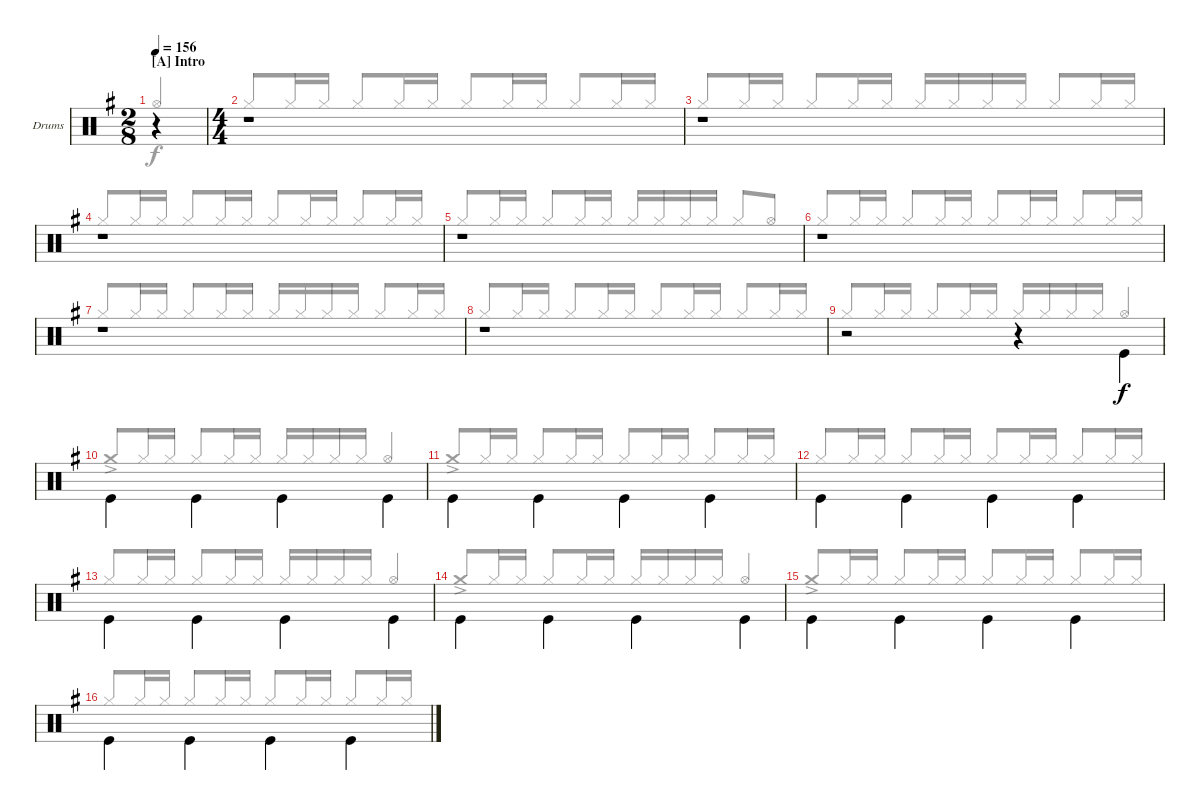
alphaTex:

\bracketExtendMode groupsimilarinstruments
\firstSystemTrackNameOrientation horizontal
\otherSystemsTrackNameOrientation horizontal
\track ("Drums" "Drums") {instrument percussion}
\staff {score}
\articulation defaults
\voice
\ts (2 8)
\section ("A" "Intro")
\tempo 156
\clef neutral
\scale
1.07314
\ks g
r.4{dy f} |
\ts (4 4)
\scale
0.92686 r.1 |
\scale
1.04288 r.1 |
\scale
0.957125 r.1 |
\scale
1.04288 r.1 |
\scale
0.957125 r.1 |
\scale
1.04288 r.1 |
\scale
0.957125 r.1 |
\scale
1.04288 r.2 r.4 "Kick (hit)".4{beam invert} |
\scale
0.957125 "Kick (hit)".4{beam invert} "Kick (hit)".4{beam invert} "Kick (hit)".4{beam invert} "Kick (hit)".4{beam invert} |
\scale
1.04288 "Kick (hit)".4{beam invert} "Kick (hit)".4{beam invert} "Kick (hit)".4{beam invert} "Kick (hit)".4{beam invert} |
\scale
0.957125 "Kick (hit)".4{beam invert} "Kick (hit)".4{beam invert} "Kick (hit)".4{beam invert} "Kick (hit)".4{beam invert} |
\scale
1.04288 "Kick (hit)".4{beam invert} "Kick (hit)".4{beam invert} "Kick (hit)".4{beam invert} "Kick (hit)".4{beam invert} |
\scale
0.957125 "Kick (hit)".4{beam invert} "Kick (hit)".4{beam invert} "Kick (hit)".4{beam invert} "Kick (hit)".4{beam invert} |
\scale
1.04288 "Kick (hit)".4{beam invert} "Kick (hit)".4{beam invert} "Kick (hit)".4{beam invert} "Kick (hit)".4{beam invert} |
\scale
0.957125 "Kick (hit)".4{beam invert} "Kick (hit)".4{beam invert} "Kick (hit)".4{beam invert} "Kick (hit)".4{beam invert}
\voice
\clef neutral
\ottava regular
\simile none
\scale
1.07314
\ks g "Hi-Hat (open)".4{dy f beam invert}
|
\scale
0.92686 "Hi-Hat (closed)".8{beam invert} "Hi-Hat (closed)".16 "Hi-Hat (closed)".16 "Hi-Hat (closed)".8{beam invert} "Hi-Hat (closed)".16 "Hi-Hat (closed)".16 "Hi-Hat (closed)".8{beam invert} "Hi-Hat (closed)".16 "Hi-Hat (closed)".16 "Hi-Hat (closed)".8{beam invert} "Hi-Hat (closed)".16 "Hi-Hat (closed)".16 |
\scale
1.04288 "Hi-Hat (closed)".8{beam invert} "Hi-Hat (closed)".16 "Hi-Hat (closed)".16 "Hi-Hat (closed)".8{beam invert} "Hi-Hat (closed)".16 "Hi-Hat (closed)".16 "Hi-Hat (closed)".16{beam invert} "Hi-Hat (closed)".16 "Hi-Hat (closed)".16 "Hi-Hat (closed)".16 "Hi-Hat (closed)".8 "Hi-Hat (closed)".16 "Hi-Hat (closed)".16{beam invert} |
\scale
0.957125 "Hi-Hat (closed)".8{beam invert} "Hi-Hat (closed)".16 "Hi-Hat (closed)".16 "Hi-Hat (closed)".8{beam invert} "Hi-Hat (closed)".16 "Hi-Hat (closed)".16 "Hi-Hat (closed)".8{beam invert} "Hi-Hat (closed)".16 "Hi-Hat (closed)".16 "Hi-Hat (closed)".8{beam invert} "Hi-Hat (closed)".16 "Hi-Hat (closed)".16 |
\scale
1.04288 "Hi-Hat (closed)".8{beam invert} "Hi-Hat (closed)".16 "Hi-Hat (closed)".16 "Hi-Hat (closed)".8{beam invert} "Hi-Hat (closed)".16 "Hi-Hat (closed)".16 "Hi-Hat (closed)".16{beam invert} "Hi-Hat (closed)".16 "Hi-Hat (closed)".16 "Hi-Hat (closed)".16 "Hi-Hat (closed)".8{beam invert} "Hi-Hat (open)".8 |
\scale
0.957125 "Hi-Hat (closed)".8{beam invert} "Hi-Hat (closed)".16 "Hi-Hat (closed)".16 "Hi-Hat (closed)".8{beam invert} "Hi-Hat (closed)".16 "Hi-Hat (closed)".16 "Hi-Hat (closed)".8{beam invert} "Hi-Hat (closed)".16 "Hi-Hat (closed)".16 "Hi-Hat (closed)".8{beam invert} "Hi-Hat (closed)".16 "Hi-Hat (closed)".16 |
\scale
1.04288 "Hi-Hat (closed)".8{beam invert} "Hi-Hat (closed)".16 "Hi-Hat (closed)".16 "Hi-Hat (closed)".8{beam invert} "Hi-Hat (closed)".16 "Hi-Hat (closed)".16 "Hi-Hat (closed)".16{beam invert} "Hi-Hat (closed)".16 "Hi-Hat (closed)".16 "Hi-Hat (closed)".16 "Hi-Hat (closed)".8 "Hi-Hat (closed)".16 "Hi-Hat (closed)".16{beam invert} |
\scale
0.957125 "Hi-Hat (closed)".8{beam invert} "Hi-Hat (closed)".16 "Hi-Hat (closed)".16 "Hi-Hat (closed)".8{beam invert} "Hi-Hat (closed)".16 "Hi-Hat (closed)".16 "Hi-Hat (closed)".8{beam invert} "Hi-Hat (closed)".16 "Hi-Hat (closed)".16 "Hi-Hat (closed)".8{beam invert} "Hi-Hat (closed)".16 "Hi-Hat (closed)".16 |
\scale
1.04288 "Hi-Hat (closed)".8{beam invert} "Hi-Hat (closed)".16 "Hi-Hat (closed)".16 "Hi-Hat (closed)".8{beam invert} "Hi-Hat (closed)".16 "Hi-Hat (closed)".16 "Hi-Hat (closed)".16{beam invert} "Hi-Hat (closed)".16 "Hi-Hat (closed)".16 "Hi-Hat (closed)".16 "Hi-Hat (open)".4{beam invert} |
\scale
0.957125 "Crash medium (hit)"{ac}.8{beam invert} "Hi-Hat (closed)".16 "Hi-Hat (closed)".16 "Hi-Hat (closed)".8{beam invert} "Hi-Hat (closed)".16 "Hi-Hat (closed)".16 "Hi-Hat (closed)".16{beam invert} "Hi-Hat (closed)".16 "Hi-Hat (closed)".16 "Hi-Hat (closed)".16 "Hi-Hat (open)".4{beam invert} |
\scale
1.04288 "Crash medium (hit)"{ac}.8{beam invert} "Hi-Hat (closed)".16 "Hi-Hat (closed)".16 "Hi-Hat (closed)".8{beam invert} "Hi-Hat (closed)".16 "Hi-Hat (closed)".16 "Hi-Hat (closed)".8{beam invert} "Hi-Hat (closed)".16 "Hi-Hat (closed)".16 "Hi-Hat (closed)".8{beam invert} "Hi-Hat (closed)".16 "Hi-Hat (closed)".16 |
\scale
0.957125 "Hi-Hat (closed)".8{beam invert} "Hi-Hat (closed)".16 "Hi-Hat (closed)".16 "Hi-Hat (closed)".8{beam invert} "Hi-Hat (closed)".16 "Hi-Hat (closed)".16 "Hi-Hat (closed)".8{beam invert} "Hi-Hat (closed)".16 "Hi-Hat (closed)".16 "Hi-Hat (closed)".8{beam invert} "Hi-Hat (closed)".16 "Hi-Hat (closed)".16 |
\scale
1.04288 "Hi-Hat (closed)".8{beam invert} "Hi-Hat (closed)".16 "Hi-Hat (closed)".16 "Hi-Hat (closed)".8{beam invert} "Hi-Hat (closed)".16 "Hi-Hat (closed)".16 "Hi-Hat (closed)".16{beam invert} "Hi-Hat (closed)".16 "Hi-Hat (closed)".16 "Hi-Hat (closed)".16 "Hi-Hat (open)".4{beam invert} |
\scale
0.957125 "Crash medium (hit)"{ac}.8{beam invert} "Hi-Hat (closed)".16 "Hi-Hat (closed)".16 "Hi-Hat (closed)".8{beam invert} "Hi-Hat (closed)".16 "Hi-Hat (closed)".16 "Hi-Hat (closed)".16{beam invert} "Hi-Hat (closed)".16 "Hi-Hat (closed)".16 "Hi-Hat (closed)".16 "Hi-Hat (open)".4{beam invert} |
\scale
1.04288 "Crash medium (hit)"{ac}.8{beam invert} "Hi-Hat (closed)".16 "Hi-Hat (closed)".16 "Hi-Hat (closed)".8{beam invert} "Hi-Hat (closed)".16 "Hi-Hat (closed)".16 "Hi-Hat (closed)".8{beam invert} "Hi-Hat (closed)".16 "Hi-Hat (closed)".16 "Hi-Hat (closed)".8{beam invert} "Hi-Hat (closed)".16 "Hi-Hat (closed)".16 |
\scale
0.957125 "Hi-Hat (closed)".8{beam invert} "Hi-Hat (closed)".16 "Hi-Hat (closed)".16 "Hi-Hat (closed)".8{beam invert} "Hi-Hat (closed)".16 "Hi-Hat (closed)".16 "Hi-Hat (closed)".8{beam invert} "Hi-Hat (closed)".16 "Hi-Hat (closed)".16 "Hi-Hat (closed)".8{beam invert} "Hi-Hat (closed)".16 "Hi-Hat (closed)".16
